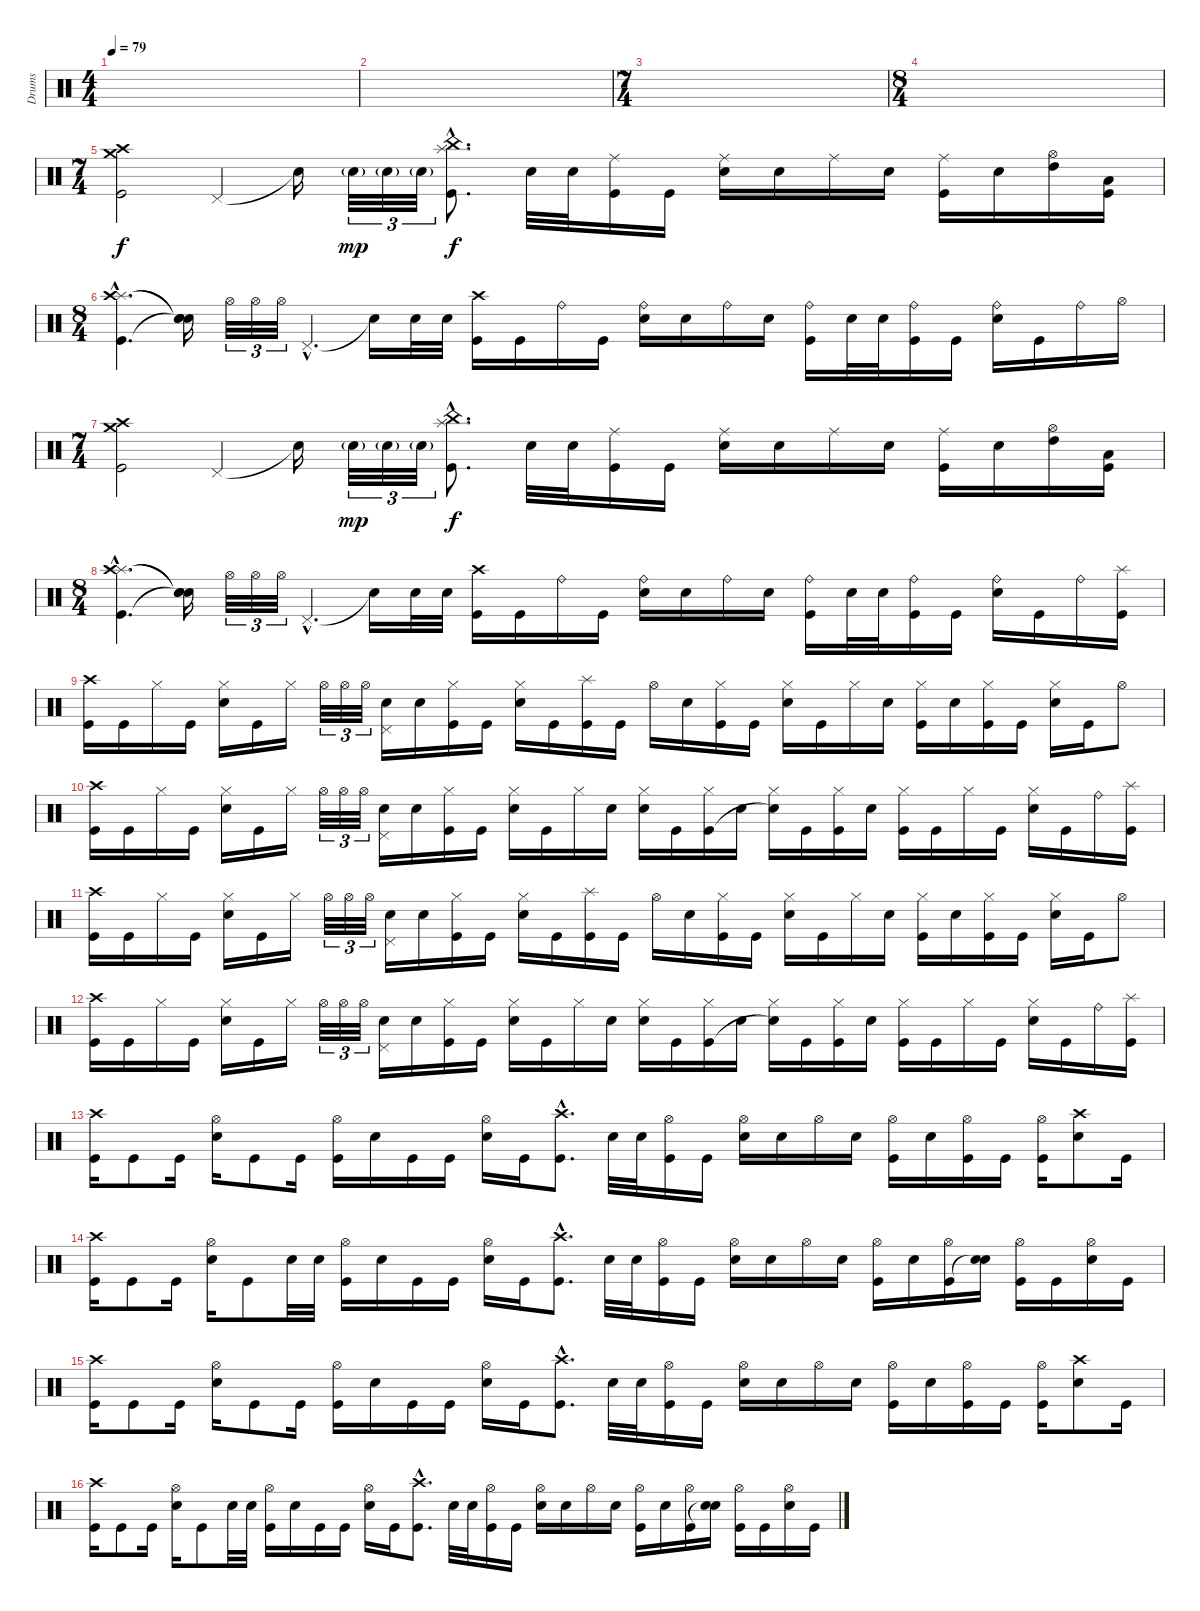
\track ("Drums" "Drums") {instrument percussion}
\staff {score}
\articulation defaults
\ts (4 4)
\tempo 79
\clef neutral
\ks c
|
|
\ts (7 4)
|
\ts (8 4)
|
\ts (7 4)
("Crash high (hit)" "Crash medium (hit)" "Kick (hit)").2 "Pedal Hi-Hat (hit)".4 "Snare (hit)"{t}.16 "Electric Snare (hit)"{g}.32{tu (3 2) dy mp} "Electric Snare (hit)"{g}.32{tu (3 2)} "Electric Snare (hit)"{g}.32{tu (3 2)} ("Splash (hit)"{hac} "China (hit)"{hac} "Kick (hit)"{hac}).8{d dy f} "Electric Snare (hit)".32 "Electric Snare (hit)".32 ("Ride (middle)" "Kick (hit)").16 "Kick (hit)".16 ("Ride (middle)" "Electric Snare (hit)").16 "Electric Snare (hit)".16 "Ride (middle)".16 "Electric Snare (hit)".16 ("Ride (middle)" "Kick (hit)").16 "Electric Snare (hit)".16 ("Hi-Hat (open)" "High Tom (hit)").16 ("Low Tom (hit)" "Kick (hit)").16 |
\ts (8 4)
("Splash (hit)"{hac} "Crash high (hit)"{hac} "Kick (hit)"{hac}).4{d} ("Snare (hit)"{t} "Snare (hit)"{t} "Snare (hit)"{t}).16 "Hi-Hat (open)".32{tu (3 2)} "Hi-Hat (open)".32{tu (3 2)} "Hi-Hat (open)".32{tu (3 2)} "Pedal Hi-Hat (hit)"{hac}.4{d} "Snare (hit)"{t}.16 "Electric Snare (hit)".32 "Electric Snare (hit)".32 ("Crash high (hit)" "Kick (hit)").16 "Kick (hit)".16 "Ride (bell)".16 "Kick (hit)".16 ("Ride (bell)" "Electric Snare (hit)").16 "Electric Snare (hit)".16 "Ride (bell)".16 "Electric Snare (hit)".16 ("Ride (bell)" "Kick (hit)").16 "Electric Snare (hit)".32 "Electric Snare (hit)".32 ("Ride (bell)" "Kick (hit)").16 "Kick (hit)".16 ("Ride (bell)" "Electric Snare (hit)").16 "Kick (hit)".16 "Ride (bell)".16 "Hi-Hat (open)".16 |
\ts (7 4)
("Crash high (hit)" "Crash medium (hit)" "Kick (hit)").2 "Pedal Hi-Hat (hit)".4 "Snare (hit)"{t}.16 "Electric Snare (hit)"{g}.32{tu (3 2) dy mp} "Electric Snare (hit)"{g}.32{tu (3 2)} "Electric Snare (hit)"{g}.32{tu (3 2)} ("Splash (hit)"{hac} "China (hit)"{hac} "Kick (hit)"{hac}).8{d dy f} "Electric Snare (hit)".32 "Electric Snare (hit)".32 ("Ride (middle)" "Kick (hit)").16 "Kick (hit)".16 ("Ride (middle)" "Electric Snare (hit)").16 "Electric Snare (hit)".16 "Ride (middle)".16 "Electric Snare (hit)".16 ("Ride (middle)" "Kick (hit)").16 "Electric Snare (hit)".16 ("Hi-Hat (open)" "High Tom (hit)").16 ("Low Tom (hit)" "Kick (hit)").16 |
\ts (8 4)
("Splash (hit)"{hac} "Crash high (hit)"{hac} "Kick (hit)"{hac}).4{d} ("Snare (hit)"{t} "Snare (hit)"{t} "Snare (hit)"{t}).16 "Hi-Hat (open)".32{tu (3 2)} "Hi-Hat (open)".32{tu (3 2)} "Hi-Hat (open)".32{tu (3 2)} "Pedal Hi-Hat (hit)"{hac}.4{d} "Snare (hit)"{t}.16 "Electric Snare (hit)".32 "Electric Snare (hit)".32 ("Crash high (hit)" "Kick (hit)").16 "Kick (hit)".16 "Ride (bell)".16 "Kick (hit)".16 ("Ride (bell)" "Electric Snare (hit)").16 "Electric Snare (hit)".16 "Ride (bell)".16 "Electric Snare (hit)".16 ("Ride (bell)" "Kick (hit)").16 "Electric Snare (hit)".32 "Electric Snare (hit)".32 ("Ride (bell)" "Kick (hit)").16 "Kick (hit)".16 ("Ride (bell)" "Electric Snare (hit)").16 "Kick (hit)".16 "Ride (bell)".16 ("Splash (hit)" "Kick (hit)").16 |
("Crash high (hit)" "Kick (hit)").16 "Kick (hit)".16 "Hi-Hat (closed)".16 "Kick (hit)".16 ("Hi-Hat (closed)" "Electric Snare (hit)").16 "Kick (hit)".16 "Hi-Hat (closed)".16 "Hi-Hat (open)".32{tu (3 2)} "Hi-Hat (open)".32{tu (3 2)} "Hi-Hat (open)".32{tu (3 2)} ("Pedal Hi-Hat (hit)" "Electric Snare (hit)").16 "Electric Snare (hit)".16 ("Hi-Hat (closed)" "Kick (hit)").16 "Kick (hit)".16 ("Hi-Hat (closed)" "Electric Snare (hit)").16 "Kick (hit)".16 ("Splash (hit)" "Kick (hit)").16 "Kick (hit)".16 "Hi-Hat (open)".16 "Electric Snare (hit)".16 ("Hi-Hat (closed)" "Kick (hit)").16 "Kick (hit)".16 ("Hi-Hat (closed)" "Electric Snare (hit)").16 "Kick (hit)".16 "Hi-Hat (closed)".16 "Electric Snare (hit)".16 ("Hi-Hat (closed)" "Kick (hit)").16 "Electric Snare (hit)".16 ("Hi-Hat (closed)" "Kick (hit)").16 "Kick (hit)".16 ("Hi-Hat (closed)" "Electric Snare (hit)").16 "Kick (hit)".16 "Hi-Hat (open)".8 |
("Crash high (hit)" "Kick (hit)").16 "Kick (hit)".16 "Hi-Hat (closed)".16 "Kick (hit)".16 ("Hi-Hat (closed)" "Electric Snare (hit)").16 "Kick (hit)".16 "Hi-Hat (closed)".16 "Hi-Hat (open)".32{tu (3 2)} "Hi-Hat (open)".32{tu (3 2)} "Hi-Hat (open)".32{tu (3 2)} ("Pedal Hi-Hat (hit)" "Electric Snare (hit)").16 "Electric Snare (hit)".16 ("Hi-Hat (closed)" "Kick (hit)").16 "Kick (hit)".16 ("Hi-Hat (closed)" "Electric Snare (hit)").16 "Kick (hit)".16 "Hi-Hat (closed)".16 "Electric Snare (hit)".16 ("Hi-Hat (closed)" "Electric Snare (hit)").16 "Kick (hit)".16 ("Hi-Hat (closed)" "Kick (hit)").16 "Electric Snare (hit)".16 ("Hi-Hat (closed)" "Electric Snare (hit)"{t}).16 "Kick (hit)".16 ("Hi-Hat (closed)" "Kick (hit)").16 "Electric Snare (hit)".16 ("Hi-Hat (closed)" "Kick (hit)").16 "Kick (hit)".16 "Hi-Hat (closed)".16 "Kick (hit)".16 ("Hi-Hat (closed)" "Electric Snare (hit)").16 "Kick (hit)".16 "Ride (bell)".16 ("Splash (hit)" "Kick (hit)").16 |
("Crash high (hit)" "Kick (hit)").16 "Kick (hit)".16 "Hi-Hat (closed)".16 "Kick (hit)".16 ("Hi-Hat (closed)" "Electric Snare (hit)").16 "Kick (hit)".16 "Hi-Hat (closed)".16 "Hi-Hat (open)".32{tu (3 2)} "Hi-Hat (open)".32{tu (3 2)} "Hi-Hat (open)".32{tu (3 2)} ("Pedal Hi-Hat (hit)" "Electric Snare (hit)").16 "Electric Snare (hit)".16 ("Hi-Hat (closed)" "Kick (hit)").16 "Kick (hit)".16 ("Hi-Hat (closed)" "Electric Snare (hit)").16 "Kick (hit)".16 ("Splash (hit)" "Kick (hit)").16 "Kick (hit)".16 "Hi-Hat (open)".16 "Electric Snare (hit)".16 ("Hi-Hat (closed)" "Kick (hit)").16 "Kick (hit)".16 ("Hi-Hat (closed)" "Electric Snare (hit)").16 "Kick (hit)".16 "Hi-Hat (closed)".16 "Electric Snare (hit)".16 ("Hi-Hat (closed)" "Kick (hit)").16 "Electric Snare (hit)".16 ("Hi-Hat (closed)" "Kick (hit)").16 "Kick (hit)".16 ("Hi-Hat (closed)" "Electric Snare (hit)").16 "Kick (hit)".16 "Hi-Hat (open)".8 |
("Crash high (hit)" "Kick (hit)").16 "Kick (hit)".16 "Hi-Hat (closed)".16 "Kick (hit)".16 ("Hi-Hat (closed)" "Electric Snare (hit)").16 "Kick (hit)".16 "Hi-Hat (closed)".16 "Hi-Hat (open)".32{tu (3 2)} "Hi-Hat (open)".32{tu (3 2)} "Hi-Hat (open)".32{tu (3 2)} ("Pedal Hi-Hat (hit)" "Electric Snare (hit)").16 "Electric Snare (hit)".16 ("Hi-Hat (closed)" "Kick (hit)").16 "Kick (hit)".16 ("Hi-Hat (closed)" "Electric Snare (hit)").16 "Kick (hit)".16 "Hi-Hat (closed)".16 "Electric Snare (hit)".16 ("Hi-Hat (closed)" "Electric Snare (hit)").16 "Kick (hit)".16 ("Hi-Hat (closed)" "Kick (hit)").16 "Electric Snare (hit)".16 ("Hi-Hat (closed)" "Electric Snare (hit)"{t}).16 "Kick (hit)".16 ("Hi-Hat (closed)" "Kick (hit)").16 "Electric Snare (hit)".16 ("Hi-Hat (closed)" "Kick (hit)").16 "Kick (hit)".16 "Hi-Hat (closed)".16 "Kick (hit)".16 ("Hi-Hat (closed)" "Electric Snare (hit)").16 "Kick (hit)".16 "Ride (bell)".16 ("Splash (hit)" "Kick (hit)").16 |
("Crash high (hit)" "Kick (hit)").16 "Kick (hit)".8 "Kick (hit)".16 ("Hi-Hat (open)" "Electric Snare (hit)").16 "Kick (hit)".8 "Kick (hit)".16 ("Hi-Hat (open)" "Kick (hit)").16 "Electric Snare (hit)".16 "Kick (hit)".16 "Kick (hit)".16 ("Hi-Hat (open)" "Electric Snare (hit)").16 "Kick (hit)".16 ("Crash high (hit)"{hac} "Kick (hit)"{hac}).8{d} "Electric Snare (hit)".32 "Electric Snare (hit)".32 ("Hi-Hat (open)" "Kick (hit)").16 "Kick (hit)".16 ("Hi-Hat (open)" "Electric Snare (hit)").16 "Electric Snare (hit)".16 "Hi-Hat (open)".16 "Electric Snare (hit)".16 ("Hi-Hat (open)" "Kick (hit)").16 "Electric Snare (hit)".16 ("Hi-Hat (open)" "Kick (hit)").16 "Kick (hit)".16 ("Hi-Hat (open)" "Kick (hit)").16 ("Crash high (hit)" "Electric Snare (hit)").8 "Kick (hit)".16 |
("Crash high (hit)" "Kick (hit)").16 "Kick (hit)".8 "Kick (hit)".16 ("Hi-Hat (open)" "Electric Snare (hit)").16 "Kick (hit)".8 "Electric Snare (hit)".32 "Electric Snare (hit)".32 ("Hi-Hat (open)" "Kick (hit)").16 "Electric Snare (hit)".16 "Kick (hit)".16 "Kick (hit)".16 ("Hi-Hat (open)" "Electric Snare (hit)").16 "Kick (hit)".16 ("Crash high (hit)"{hac} "Kick (hit)"{hac}).8{d} "Electric Snare (hit)".32 "Electric Snare (hit)".32 ("Hi-Hat (open)" "Kick (hit)").16 "Kick (hit)".16 ("Hi-Hat (open)" "Electric Snare (hit)").16 "Electric Snare (hit)".16 "Hi-Hat (open)".16 "Electric Snare (hit)".16 ("Hi-Hat (open)" "Kick (hit)").16 "Electric Snare (hit)".16 ("Hi-Hat (open)" "Kick (hit)").16 ("Electric Snare (hit)" "Snare (hit)"{t}).16 ("Hi-Hat (open)" "Kick (hit)").16 "Kick (hit)".16 ("Hi-Hat (open)" "Electric Snare (hit)").16 "Kick (hit)".16 |
("Crash high (hit)" "Kick (hit)").16 "Kick (hit)".8 "Kick (hit)".16 ("Hi-Hat (open)" "Electric Snare (hit)").16 "Kick (hit)".8 "Kick (hit)".16 ("Hi-Hat (open)" "Kick (hit)").16 "Electric Snare (hit)".16 "Kick (hit)".16 "Kick (hit)".16 ("Hi-Hat (open)" "Electric Snare (hit)").16 "Kick (hit)".16 ("Crash high (hit)"{hac} "Kick (hit)"{hac}).8{d} "Electric Snare (hit)".32 "Electric Snare (hit)".32 ("Hi-Hat (open)" "Kick (hit)").16 "Kick (hit)".16 ("Hi-Hat (open)" "Electric Snare (hit)").16 "Electric Snare (hit)".16 "Hi-Hat (open)".16 "Electric Snare (hit)".16 ("Hi-Hat (open)" "Kick (hit)").16 "Electric Snare (hit)".16 ("Hi-Hat (open)" "Kick (hit)").16 "Kick (hit)".16 ("Hi-Hat (open)" "Kick (hit)").16 ("Crash high (hit)" "Electric Snare (hit)").8 "Kick (hit)".16 |
("Crash high (hit)" "Kick (hit)").16 "Kick (hit)".8 "Kick (hit)".16 ("Hi-Hat (open)" "Electric Snare (hit)").16 "Kick (hit)".8 "Electric Snare (hit)".32 "Electric Snare (hit)".32 ("Hi-Hat (open)" "Kick (hit)").16 "Electric Snare (hit)".16 "Kick (hit)".16 "Kick (hit)".16 ("Hi-Hat (open)" "Electric Snare (hit)").16 "Kick (hit)".16 ("Crash high (hit)"{hac} "Kick (hit)"{hac}).8{d} "Electric Snare (hit)".32 "Electric Snare (hit)".32 ("Hi-Hat (open)" "Kick (hit)").16 "Kick (hit)".16 ("Hi-Hat (open)" "Electric Snare (hit)").16 "Electric Snare (hit)".16 "Hi-Hat (open)".16 "Electric Snare (hit)".16 ("Hi-Hat (open)" "Kick (hit)").16 "Electric Snare (hit)".16 ("Hi-Hat (open)" "Kick (hit)").16 ("Electric Snare (hit)" "Snare (hit)"{t}).16 ("Hi-Hat (open)" "Kick (hit)").16 "Kick (hit)".16 ("Hi-Hat (open)" "Electric Snare (hit)").16 "Kick (hit)".16
